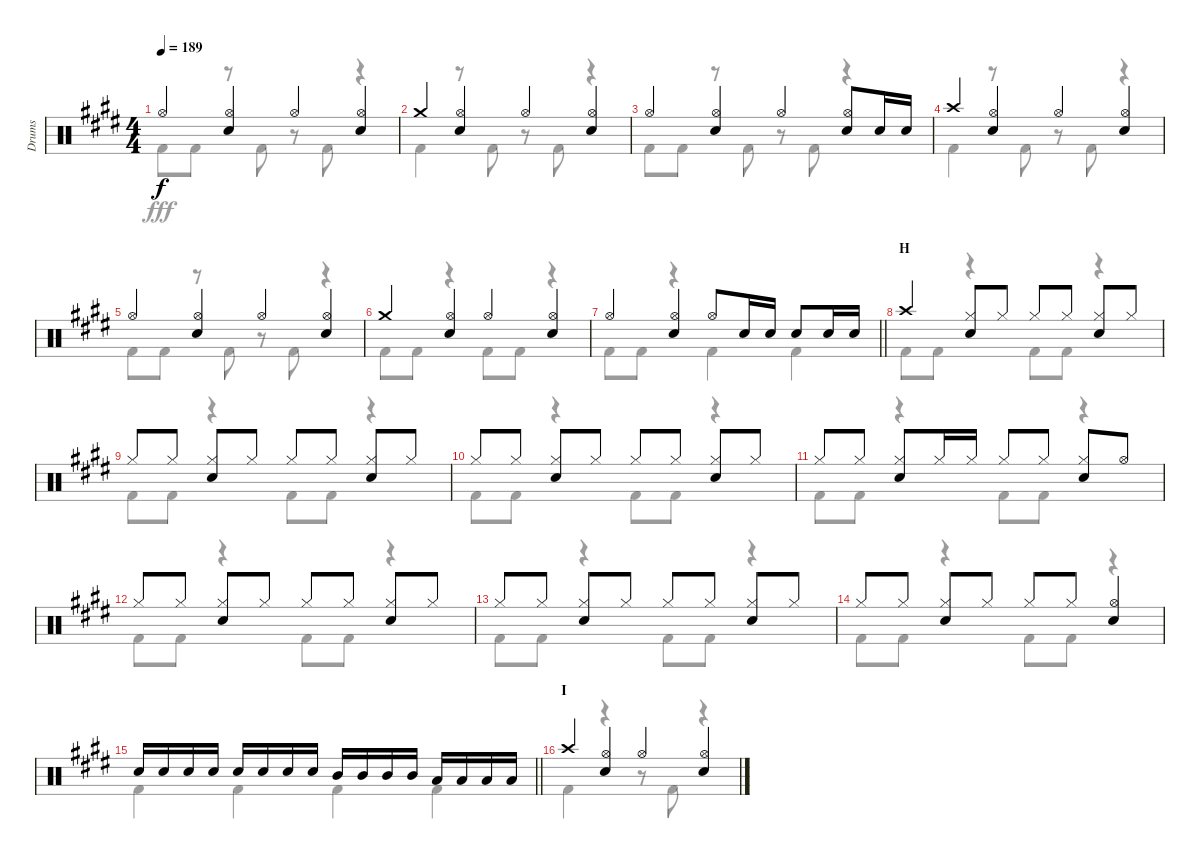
\track ("Drums" "Drums") {instrument percussion}
\staff {score}
\articulation defaults
\voice
\ts (4 4)
\tempo 189
\clef neutral
\ks e "Hi-Hat (open)".4{dy f}
("Hi-Hat (open)" "Snare (hit) 2").4 "Hi-Hat (open)".4 ("Hi-Hat (open)" "Snare (hit) 2").4 |
"Crash medium (hit)".4 ("Hi-Hat (open)" "Snare (hit) 2").4 "Hi-Hat (open)".4 ("Hi-Hat (open)" "Snare (hit) 2").4 |
"Hi-Hat (open)".4 ("Hi-Hat (open)" "Snare (hit) 2").4 "Hi-Hat (open)".4 ("Hi-Hat (open)" "Snare (hit) 2").8 "Snare (hit) 2".16 "Snare (hit) 2".16 |
"Crash high (hit)".4 ("Hi-Hat (open)" "Snare (hit) 2").4 "Hi-Hat (open)".4 ("Hi-Hat (open)" "Snare (hit) 2").4 |
"Hi-Hat (open)".4 ("Hi-Hat (open)" "Snare (hit) 2").4 "Hi-Hat (open)".4 ("Hi-Hat (open)" "Snare (hit) 2").4 |
"Crash medium (hit)".4 ("Hi-Hat (open)" "Snare (hit) 2").4 "Hi-Hat (open)".4 ("Hi-Hat (open)" "Snare (hit) 2").4 |
\barLineRight lightlight "Hi-Hat (open)".4
("Hi-Hat (open)" "Snare (hit) 2").4 "Hi-Hat (open)".8 "Snare (hit) 2".16 "Snare (hit) 2".16 "Snare (hit) 2".8 "Snare (hit) 2".16 "Snare (hit) 2".16 |
\section ("" "H")
"Crash high (hit)".4 ("Hi-Hat (closed)" "Snare (hit) 2").8 "Hi-Hat (closed)".8 "Hi-Hat (closed)".8 "Hi-Hat (closed)".8 ("Hi-Hat (closed)" "Snare (hit) 2").8 "Hi-Hat (closed)".8 |
"Hi-Hat (closed)".8 "Hi-Hat (closed)".8 ("Hi-Hat (closed)" "Snare (hit) 2").8 "Hi-Hat (closed)".8 "Hi-Hat (closed)".8 "Hi-Hat (closed)".8 ("Hi-Hat (closed)" "Snare (hit) 2").8 "Hi-Hat (closed)".8 |
"Hi-Hat (closed)".8 "Hi-Hat (closed)".8 ("Hi-Hat (closed)" "Snare (hit) 2").8 "Hi-Hat (closed)".8 "Hi-Hat (closed)".8 "Hi-Hat (closed)".8 ("Hi-Hat (closed)" "Snare (hit) 2").8 "Hi-Hat (closed)".8 |
"Hi-Hat (closed)".8 "Hi-Hat (closed)".8 ("Hi-Hat (closed)" "Snare (hit) 2").8 "Hi-Hat (closed)".16 "Hi-Hat (closed)".16 "Hi-Hat (closed)".8 "Hi-Hat (closed)".8 ("Hi-Hat (closed)" "Snare (hit) 2").8 "Hi-Hat (open)".8 |
"Hi-Hat (closed)".8 "Hi-Hat (closed)".8 ("Hi-Hat (closed)" "Snare (hit) 2").8 "Hi-Hat (closed)".8 "Hi-Hat (closed)".8 "Hi-Hat (closed)".8 ("Hi-Hat (closed)" "Snare (hit) 2").8 "Hi-Hat (closed)".8 |
"Hi-Hat (closed)".8 "Hi-Hat (closed)".8 ("Hi-Hat (closed)" "Snare (hit) 2").8 "Hi-Hat (closed)".8 "Hi-Hat (closed)".8 "Hi-Hat (closed)".8 ("Hi-Hat (closed)" "Snare (hit) 2").8 "Hi-Hat (closed)".8 |
"Hi-Hat (closed)".8 "Hi-Hat (closed)".8 ("Hi-Hat (closed)" "Snare (hit) 2").8 "Hi-Hat (closed)".8 "Hi-Hat (closed)".8 "Hi-Hat (closed)".8 ("Hi-Hat (open)" "Snare (hit) 2").4 |
\barLineRight lightlight "Snare (hit) 2".16 "Snare (hit) 2".16 "Snare (hit) 2".16 "Snare (hit) 2".16 "Snare (hit) 2".16 "Snare (hit) 2".16 "Snare (hit) 2".16 "Snare (hit) 2".16 "Mid Tom (hit)".16 "Mid Tom (hit)".16 "Mid Tom (hit)".16 "Mid Tom (hit)".16 "Low Tom (hit)".16 "Low Tom (hit)".16 "Low Tom (hit)".16 "Low Tom (hit)".16
|
\section ("" "I")
"Crash high (hit)".4 ("Hi-Hat (open)" "Snare (hit) 2").4 "Hi-Hat (open)".4 ("Hi-Hat (open)" "Snare (hit) 2").4
\voice
\clef neutral
\ottava regular
\simile none
\ks e "Kick (hit) 2".8{dy fff} "Kick (hit) 2".8
r.8 "Kick (hit) 2".8 r.8 "Kick (hit) 2".8 r.4 |
"Kick (hit) 2".4 r.8 "Kick (hit) 2".8 r.8 "Kick (hit) 2".8 r.4 |
"Kick (hit) 2".8 "Kick (hit) 2".8 r.8 "Kick (hit) 2".8 r.8 "Kick (hit) 2".8 r.4 |
"Kick (hit) 2".4 r.8 "Kick (hit) 2".8 r.8 "Kick (hit) 2".8 r.4 |
"Kick (hit) 2".8 "Kick (hit) 2".8 r.8 "Kick (hit) 2".8 r.8 "Kick (hit) 2".8 r.4 |
"Kick (hit) 2".8 "Kick (hit) 2".8 r.4 "Kick (hit) 2".8 "Kick (hit) 2".8 r.4 |
\barLineRight lightlight "Kick (hit) 2".8 "Kick (hit) 2".8
r.4 "Kick (hit) 2".4 "Kick (hit) 2".4 |
"Kick (hit) 2".8 "Kick (hit) 2".8 r.4 "Kick (hit) 2".8 "Kick (hit) 2".8 r.4 |
"Kick (hit) 2".8 "Kick (hit) 2".8 r.4 "Kick (hit) 2".8 "Kick (hit) 2".8 r.4 |
"Kick (hit) 2".8 "Kick (hit) 2".8 r.4 "Kick (hit) 2".8 "Kick (hit) 2".8 r.4 |
"Kick (hit) 2".8 "Kick (hit) 2".8 r.4 "Kick (hit) 2".8 "Kick (hit) 2".8 r.4 |
"Kick (hit) 2".8 "Kick (hit) 2".8 r.4 "Kick (hit) 2".8 "Kick (hit) 2".8 r.4 |
"Kick (hit) 2".8 "Kick (hit) 2".8 r.4 "Kick (hit) 2".8 "Kick (hit) 2".8 r.4 |
"Kick (hit) 2".8 "Kick (hit) 2".8 r.4 "Kick (hit) 2".8 "Kick (hit) 2".8 r.4 |
\barLineRight lightlight "Kick (hit) 2".4 "Kick (hit) 2".4 "Kick (hit) 2".4 "Kick (hit) 2".4
|
"Kick (hit) 2".4 r.4 r.8 "Kick (hit) 2".8 r.4
